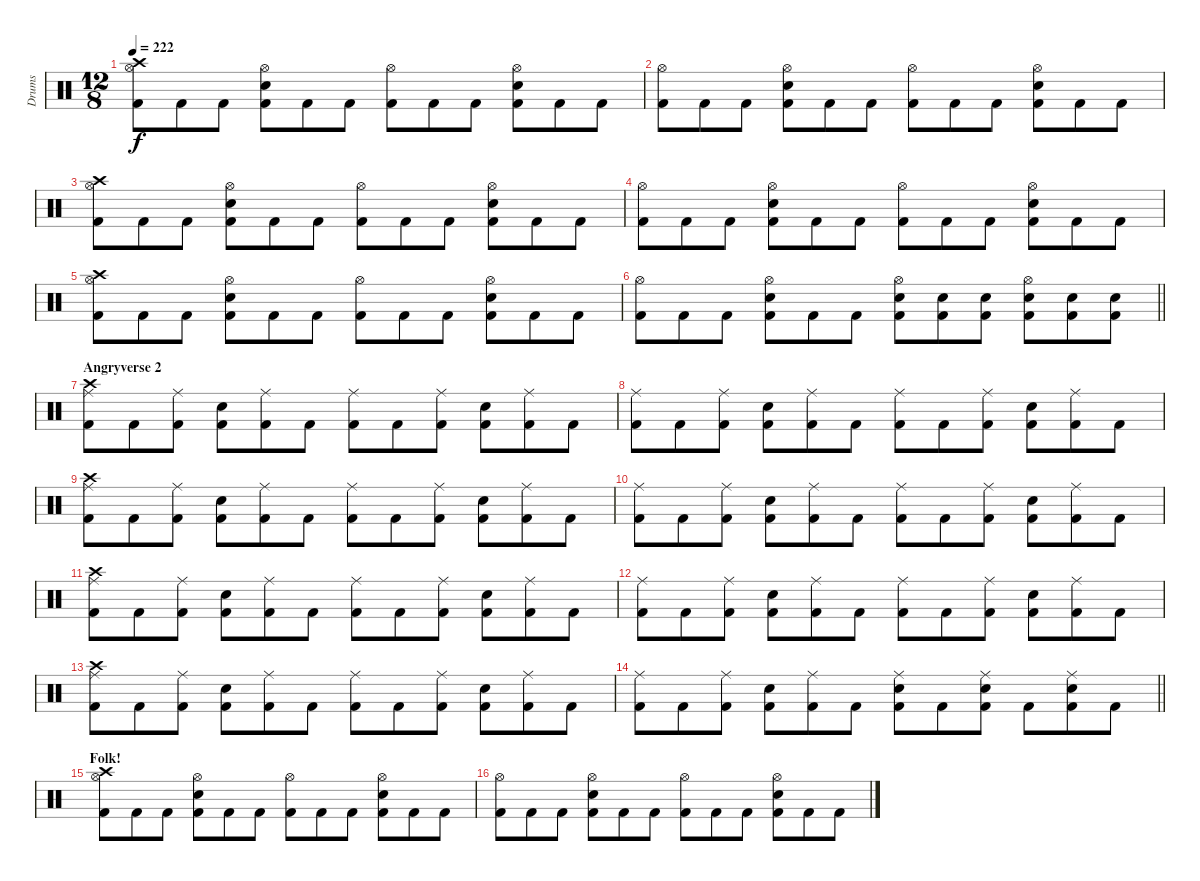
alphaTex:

\track ("Drums" "Drums") {instrument percussion}
\staff {score}
\articulation defaults
\ts (12 8)
\tempo 222
\clef neutral
\ks c
("Crash high (hit)" "Hi-Hat (open)" "Kick (hit) 2").8{dy f} "Kick (hit) 2".8 "Kick (hit) 2".8 ("Hi-Hat (open)" "Snare (hit) 2" "Kick (hit) 2").8 "Kick (hit) 2".8 "Kick (hit) 2".8 ("Hi-Hat (open)" "Kick (hit) 2").8 "Kick (hit) 2".8 "Kick (hit) 2".8 ("Hi-Hat (open)" "Snare (hit) 2" "Kick (hit) 2").8 "Kick (hit) 2".8 "Kick (hit) 2".8 |
("Hi-Hat (open)" "Kick (hit) 2").8 "Kick (hit) 2".8 "Kick (hit) 2".8 ("Hi-Hat (open)" "Snare (hit) 2" "Kick (hit) 2").8 "Kick (hit) 2".8 "Kick (hit) 2".8 ("Hi-Hat (open)" "Kick (hit) 2").8 "Kick (hit) 2".8 "Kick (hit) 2".8 ("Hi-Hat (open)" "Snare (hit) 2" "Kick (hit) 2").8 "Kick (hit) 2".8 "Kick (hit) 2".8 |
("Crash high (hit)" "Hi-Hat (open)" "Kick (hit) 2").8 "Kick (hit) 2".8 "Kick (hit) 2".8 ("Hi-Hat (open)" "Snare (hit) 2" "Kick (hit) 2").8 "Kick (hit) 2".8 "Kick (hit) 2".8 ("Hi-Hat (open)" "Kick (hit) 2").8 "Kick (hit) 2".8 "Kick (hit) 2".8 ("Hi-Hat (open)" "Snare (hit) 2" "Kick (hit) 2").8 "Kick (hit) 2".8 "Kick (hit) 2".8 |
("Hi-Hat (open)" "Kick (hit) 2").8 "Kick (hit) 2".8 "Kick (hit) 2".8 ("Hi-Hat (open)" "Snare (hit) 2" "Kick (hit) 2").8 "Kick (hit) 2".8 "Kick (hit) 2".8 ("Hi-Hat (open)" "Kick (hit) 2").8 "Kick (hit) 2".8 "Kick (hit) 2".8 ("Hi-Hat (open)" "Snare (hit) 2" "Kick (hit) 2").8 "Kick (hit) 2".8 "Kick (hit) 2".8 |
("Crash high (hit)" "Hi-Hat (open)" "Kick (hit) 2").8 "Kick (hit) 2".8 "Kick (hit) 2".8 ("Hi-Hat (open)" "Snare (hit) 2" "Kick (hit) 2").8 "Kick (hit) 2".8 "Kick (hit) 2".8 ("Hi-Hat (open)" "Kick (hit) 2").8 "Kick (hit) 2".8 "Kick (hit) 2".8 ("Hi-Hat (open)" "Snare (hit) 2" "Kick (hit) 2").8 "Kick (hit) 2".8 "Kick (hit) 2".8 |
\barLineRight lightlight
("Hi-Hat (open)" "Kick (hit) 2").8 "Kick (hit) 2".8 "Kick (hit) 2".8 ("Hi-Hat (open)" "Snare (hit) 2" "Kick (hit) 2").8 "Kick (hit) 2".8 "Kick (hit) 2".8 ("Hi-Hat (open)" "Snare (hit) 2" "Kick (hit) 2").8 ("Snare (hit) 2" "Kick (hit) 2").8 ("Snare (hit) 2" "Kick (hit) 2").8 ("Hi-Hat (open)" "Snare (hit) 2" "Kick (hit) 2").8 ("Snare (hit) 2" "Kick (hit) 2").8 ("Snare (hit) 2" "Kick (hit) 2").8 |
\section ("" "Angryverse 2")
("Crash high (hit)" "Ride (middle)" "Kick (hit) 2").8 "Kick (hit) 2".8 ("Ride (middle)" "Kick (hit) 2").8 ("Snare (hit) 2" "Kick (hit) 2").8 ("Ride (middle)" "Kick (hit) 2").8 "Kick (hit) 2".8 ("Ride (middle)" "Kick (hit) 2").8 "Kick (hit) 2".8 ("Ride (middle)" "Kick (hit) 2").8 ("Snare (hit) 2" "Kick (hit) 2").8 ("Ride (middle)" "Kick (hit) 2").8 "Kick (hit) 2".8 |
("Ride (middle)" "Kick (hit) 2").8 "Kick (hit) 2".8 ("Ride (middle)" "Kick (hit) 2").8 ("Snare (hit) 2" "Kick (hit) 2").8 ("Ride (middle)" "Kick (hit) 2").8 "Kick (hit) 2".8 ("Ride (middle)" "Kick (hit) 2").8 "Kick (hit) 2".8 ("Ride (middle)" "Kick (hit) 2").8 ("Snare (hit) 2" "Kick (hit) 2").8 ("Ride (middle)" "Kick (hit) 2").8 "Kick (hit) 2".8 |
("Crash high (hit)" "Ride (middle)" "Kick (hit) 2").8 "Kick (hit) 2".8 ("Ride (middle)" "Kick (hit) 2").8 ("Snare (hit) 2" "Kick (hit) 2").8 ("Ride (middle)" "Kick (hit) 2").8 "Kick (hit) 2".8 ("Ride (middle)" "Kick (hit) 2").8 "Kick (hit) 2".8 ("Ride (middle)" "Kick (hit) 2").8 ("Snare (hit) 2" "Kick (hit) 2").8 ("Ride (middle)" "Kick (hit) 2").8 "Kick (hit) 2".8 |
("Ride (middle)" "Kick (hit) 2").8 "Kick (hit) 2".8 ("Ride (middle)" "Kick (hit) 2").8 ("Snare (hit) 2" "Kick (hit) 2").8 ("Ride (middle)" "Kick (hit) 2").8 "Kick (hit) 2".8 ("Ride (middle)" "Kick (hit) 2").8 "Kick (hit) 2".8 ("Ride (middle)" "Kick (hit) 2").8 ("Snare (hit) 2" "Kick (hit) 2").8 ("Ride (middle)" "Kick (hit) 2").8 "Kick (hit) 2".8 |
("Crash high (hit)" "Ride (middle)" "Kick (hit) 2").8 "Kick (hit) 2".8 ("Ride (middle)" "Kick (hit) 2").8 ("Snare (hit) 2" "Kick (hit) 2").8 ("Ride (middle)" "Kick (hit) 2").8 "Kick (hit) 2".8 ("Ride (middle)" "Kick (hit) 2").8 "Kick (hit) 2".8 ("Ride (middle)" "Kick (hit) 2").8 ("Snare (hit) 2" "Kick (hit) 2").8 ("Ride (middle)" "Kick (hit) 2").8 "Kick (hit) 2".8 |
("Ride (middle)" "Kick (hit) 2").8 "Kick (hit) 2".8 ("Ride (middle)" "Kick (hit) 2").8 ("Snare (hit) 2" "Kick (hit) 2").8 ("Ride (middle)" "Kick (hit) 2").8 "Kick (hit) 2".8 ("Ride (middle)" "Kick (hit) 2").8 "Kick (hit) 2".8 ("Ride (middle)" "Kick (hit) 2").8 ("Snare (hit) 2" "Kick (hit) 2").8 ("Ride (middle)" "Kick (hit) 2").8 "Kick (hit) 2".8 |
("Crash high (hit)" "Ride (middle)" "Kick (hit) 2").8 "Kick (hit) 2".8 ("Ride (middle)" "Kick (hit) 2").8 ("Snare (hit) 2" "Kick (hit) 2").8 ("Ride (middle)" "Kick (hit) 2").8 "Kick (hit) 2".8 ("Ride (middle)" "Kick (hit) 2").8 "Kick (hit) 2".8 ("Ride (middle)" "Kick (hit) 2").8 ("Snare (hit) 2" "Kick (hit) 2").8 ("Ride (middle)" "Kick (hit) 2").8 "Kick (hit) 2".8 |
\barLineRight lightlight
("Ride (middle)" "Kick (hit) 2").8 "Kick (hit) 2".8 ("Ride (middle)" "Kick (hit) 2").8 ("Snare (hit) 2" "Kick (hit) 2").8 ("Ride (middle)" "Kick (hit) 2").8 "Kick (hit) 2".8 ("Ride (middle)" "Snare (hit) 2" "Kick (hit) 2").8 "Kick (hit) 2".8 ("Ride (middle)" "Snare (hit) 2" "Kick (hit) 2").8 "Kick (hit) 2".8 ("Ride (middle)" "Snare (hit) 2" "Kick (hit) 2").8 "Kick (hit) 2".8 |
\section ("" "Folk!")
("Crash high (hit)" "Hi-Hat (open)" "Kick (hit) 2").8 "Kick (hit) 2".8 "Kick (hit) 2".8 ("Hi-Hat (open)" "Snare (hit) 2" "Kick (hit) 2").8 "Kick (hit) 2".8 "Kick (hit) 2".8 ("Hi-Hat (open)" "Kick (hit) 2").8 "Kick (hit) 2".8 "Kick (hit) 2".8 ("Hi-Hat (open)" "Snare (hit) 2" "Kick (hit) 2").8 "Kick (hit) 2".8 "Kick (hit) 2".8 |
("Hi-Hat (open)" "Kick (hit) 2").8 "Kick (hit) 2".8 "Kick (hit) 2".8 ("Hi-Hat (open)" "Snare (hit) 2" "Kick (hit) 2").8 "Kick (hit) 2".8 "Kick (hit) 2".8 ("Hi-Hat (open)" "Kick (hit) 2").8 "Kick (hit) 2".8 "Kick (hit) 2".8 ("Hi-Hat (open)" "Snare (hit) 2" "Kick (hit) 2").8 "Kick (hit) 2".8 "Kick (hit) 2".8
